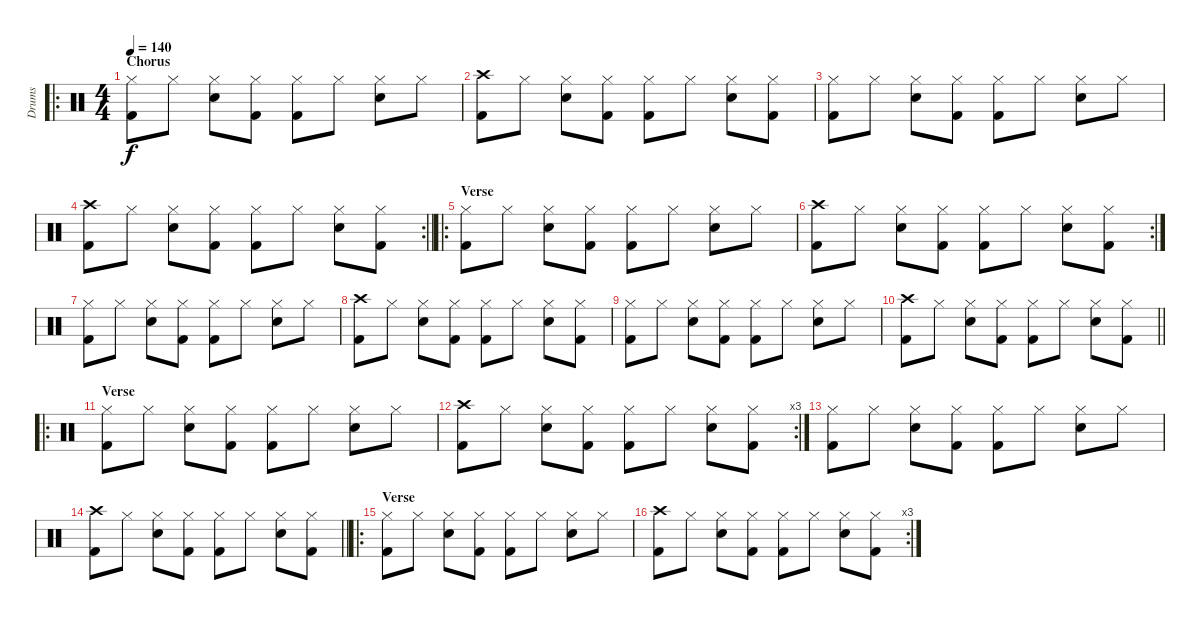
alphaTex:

\track ("Drums" "Drums") {instrument percussion}
\staff {score}
\articulation defaults
\ro
\ts (4 4)
\section ("" "Chorus")
\tempo 140
\clef neutral
\ks c
("Kick (hit) 2" "Hi-Hat (closed)").8{dy f} "Hi-Hat (closed)".8 ("Hi-Hat (closed)" "Electric Snare (hit)").8 ("Kick (hit) 2" "Hi-Hat (closed)").8 ("Kick (hit) 2" "Hi-Hat (closed)").8 "Hi-Hat (closed)".8 ("Hi-Hat (closed)" "Electric Snare (hit)").8 "Hi-Hat (closed)".8 |
("Kick (hit) 2" "Crash high (hit)").8 "Hi-Hat (closed)".8 ("Hi-Hat (closed)" "Electric Snare (hit)").8 ("Kick (hit) 2" "Hi-Hat (closed)").8 ("Kick (hit) 2" "Hi-Hat (closed)").8 "Hi-Hat (closed)".8 ("Hi-Hat (closed)" "Electric Snare (hit)").8 ("Kick (hit) 2" "Hi-Hat (closed)").8 |
("Kick (hit) 2" "Hi-Hat (closed)").8 "Hi-Hat (closed)".8 ("Hi-Hat (closed)" "Electric Snare (hit)").8 ("Kick (hit) 2" "Hi-Hat (closed)").8 ("Kick (hit) 2" "Hi-Hat (closed)").8 "Hi-Hat (closed)".8 ("Hi-Hat (closed)" "Electric Snare (hit)").8 "Hi-Hat (closed)".8 |
\rc 2
\barLineRight lightlight
("Kick (hit) 2" "Crash high (hit)").8 "Hi-Hat (closed)".8 ("Hi-Hat (closed)" "Electric Snare (hit)").8 ("Kick (hit) 2" "Hi-Hat (closed)").8 ("Kick (hit) 2" "Hi-Hat (closed)").8 "Hi-Hat (closed)".8 ("Hi-Hat (closed)" "Electric Snare (hit)").8 ("Kick (hit) 2" "Hi-Hat (closed)").8 |
\ro
\section ("" "Verse")
("Kick (hit) 2" "Hi-Hat (closed)").8 "Hi-Hat (closed)".8 ("Hi-Hat (closed)" "Electric Snare (hit)").8 ("Kick (hit) 2" "Hi-Hat (closed)").8 ("Kick (hit) 2" "Hi-Hat (closed)").8 "Hi-Hat (closed)".8 ("Hi-Hat (closed)" "Electric Snare (hit)").8 "Hi-Hat (closed)".8 |
\rc 2
("Kick (hit) 2" "Crash high (hit)").8 "Hi-Hat (closed)".8 ("Hi-Hat (closed)" "Electric Snare (hit)").8 ("Kick (hit) 2" "Hi-Hat (closed)").8 ("Kick (hit) 2" "Hi-Hat (closed)").8 "Hi-Hat (closed)".8 ("Hi-Hat (closed)" "Electric Snare (hit)").8 ("Kick (hit) 2" "Hi-Hat (closed)").8 |
("Kick (hit) 2" "Hi-Hat (closed)").8 "Hi-Hat (closed)".8 ("Hi-Hat (closed)" "Electric Snare (hit)").8 ("Kick (hit) 2" "Hi-Hat (closed)").8 ("Kick (hit) 2" "Hi-Hat (closed)").8 "Hi-Hat (closed)".8 ("Hi-Hat (closed)" "Electric Snare (hit)").8 "Hi-Hat (closed)".8 |
("Kick (hit) 2" "Crash high (hit)").8 "Hi-Hat (closed)".8 ("Hi-Hat (closed)" "Electric Snare (hit)").8 ("Kick (hit) 2" "Hi-Hat (closed)").8 ("Kick (hit) 2" "Hi-Hat (closed)").8 "Hi-Hat (closed)".8 ("Hi-Hat (closed)" "Electric Snare (hit)").8 ("Kick (hit) 2" "Hi-Hat (closed)").8 |
("Kick (hit) 2" "Hi-Hat (closed)").8 "Hi-Hat (closed)".8 ("Hi-Hat (closed)" "Electric Snare (hit)").8 ("Kick (hit) 2" "Hi-Hat (closed)").8 ("Kick (hit) 2" "Hi-Hat (closed)").8 "Hi-Hat (closed)".8 ("Hi-Hat (closed)" "Electric Snare (hit)").8 "Hi-Hat (closed)".8 |
\barLineRight lightlight
("Kick (hit) 2" "Crash high (hit)").8 "Hi-Hat (closed)".8 ("Hi-Hat (closed)" "Electric Snare (hit)").8 ("Kick (hit) 2" "Hi-Hat (closed)").8 ("Kick (hit) 2" "Hi-Hat (closed)").8 "Hi-Hat (closed)".8 ("Hi-Hat (closed)" "Electric Snare (hit)").8 ("Kick (hit) 2" "Hi-Hat (closed)").8 |
\ro
\section ("" "Verse")
("Kick (hit) 2" "Hi-Hat (closed)").8 "Hi-Hat (closed)".8 ("Hi-Hat (closed)" "Electric Snare (hit)").8 ("Kick (hit) 2" "Hi-Hat (closed)").8 ("Kick (hit) 2" "Hi-Hat (closed)").8 "Hi-Hat (closed)".8 ("Hi-Hat (closed)" "Electric Snare (hit)").8 "Hi-Hat (closed)".8 |
\rc 3
("Kick (hit) 2" "Crash high (hit)").8 "Hi-Hat (closed)".8 ("Hi-Hat (closed)" "Electric Snare (hit)").8 ("Kick (hit) 2" "Hi-Hat (closed)").8 ("Kick (hit) 2" "Hi-Hat (closed)").8 "Hi-Hat (closed)".8 ("Hi-Hat (closed)" "Electric Snare (hit)").8 ("Kick (hit) 2" "Hi-Hat (closed)").8 |
("Kick (hit) 2" "Hi-Hat (closed)").8 "Hi-Hat (closed)".8 ("Hi-Hat (closed)" "Electric Snare (hit)").8 ("Kick (hit) 2" "Hi-Hat (closed)").8 ("Kick (hit) 2" "Hi-Hat (closed)").8 "Hi-Hat (closed)".8 ("Hi-Hat (closed)" "Electric Snare (hit)").8 "Hi-Hat (closed)".8 |
\barLineRight lightlight
("Kick (hit) 2" "Crash high (hit)").8 "Hi-Hat (closed)".8 ("Hi-Hat (closed)" "Electric Snare (hit)").8 ("Kick (hit) 2" "Hi-Hat (closed)").8 ("Kick (hit) 2" "Hi-Hat (closed)").8 "Hi-Hat (closed)".8 ("Hi-Hat (closed)" "Electric Snare (hit)").8 ("Kick (hit) 2" "Hi-Hat (closed)").8 |
\ro
\section ("" "Verse")
("Kick (hit) 2" "Hi-Hat (closed)").8 "Hi-Hat (closed)".8 ("Hi-Hat (closed)" "Electric Snare (hit)").8 ("Kick (hit) 2" "Hi-Hat (closed)").8 ("Kick (hit) 2" "Hi-Hat (closed)").8 "Hi-Hat (closed)".8 ("Hi-Hat (closed)" "Electric Snare (hit)").8 "Hi-Hat (closed)".8 |
\rc 3
("Kick (hit) 2" "Crash high (hit)").8 "Hi-Hat (closed)".8 ("Hi-Hat (closed)" "Electric Snare (hit)").8 ("Kick (hit) 2" "Hi-Hat (closed)").8 ("Kick (hit) 2" "Hi-Hat (closed)").8 "Hi-Hat (closed)".8 ("Hi-Hat (closed)" "Electric Snare (hit)").8 ("Kick (hit) 2" "Hi-Hat (closed)").8
